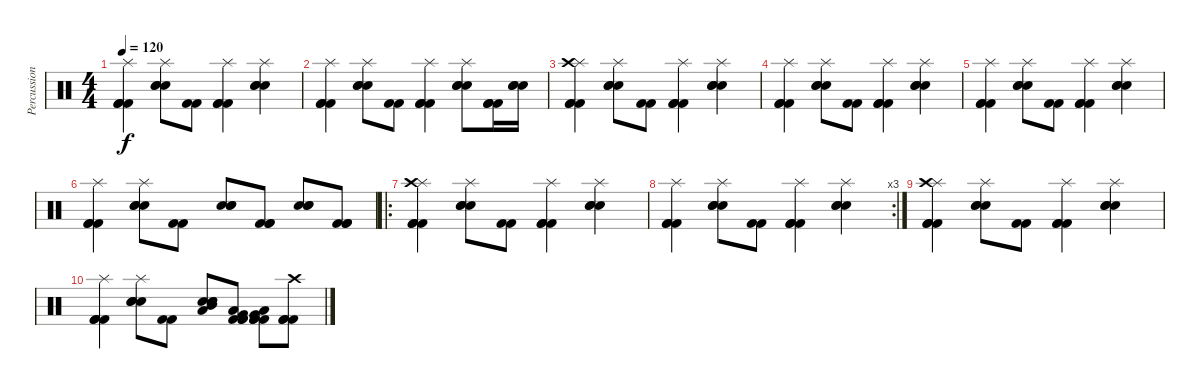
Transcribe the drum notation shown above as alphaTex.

\track ("Percussion" "Percussion") {instrument percussion}
\staff {score}
\articulation defaults
\ts (4 4)
\tempo 120
\clef neutral
\ks c
("Kick (hit) 2" "Kick (hit) 2" "Kick (hit) 2" "Splash (hit)").4{dy f} ("Electric Snare (hit)" "Electric Snare (hit)" "Electric Snare (hit)" "Splash (hit)").8 ("Kick (hit) 2" "Kick (hit) 2").8 ("Kick (hit) 2" "Kick (hit) 2" "Kick (hit) 2" "Splash (hit)").4 ("Electric Snare (hit)" "Electric Snare (hit)" "Electric Snare (hit)" "Splash (hit)").4 |
("Kick (hit) 2" "Kick (hit) 2" "Kick (hit) 2" "Splash (hit)").4 ("Electric Snare (hit)" "Electric Snare (hit)" "Electric Snare (hit)" "Splash (hit)").8 ("Kick (hit) 2" "Kick (hit) 2").8 ("Kick (hit) 2" "Kick (hit) 2" "Kick (hit) 2" "Splash (hit)").4 ("Electric Snare (hit)" "Electric Snare (hit)" "Electric Snare (hit)" "Splash (hit)").8 ("Kick (hit) 2" "Kick (hit) 2" "Kick (hit) 2").16 ("Electric Snare (hit)" "Electric Snare (hit)" "Electric Snare (hit)").16 |
("Kick (hit) 2" "Kick (hit) 2" "Kick (hit) 2" "Splash (hit)" "Crash high (hit)").4 ("Electric Snare (hit)" "Electric Snare (hit)" "Electric Snare (hit)" "Splash (hit)").8 ("Kick (hit) 2" "Kick (hit) 2").8 ("Kick (hit) 2" "Kick (hit) 2" "Kick (hit) 2" "Splash (hit)").4 ("Electric Snare (hit)" "Electric Snare (hit)" "Electric Snare (hit)" "Splash (hit)").4 |
("Kick (hit) 2" "Kick (hit) 2" "Kick (hit) 2" "Splash (hit)").4 ("Electric Snare (hit)" "Electric Snare (hit)" "Electric Snare (hit)" "Splash (hit)").8 ("Kick (hit) 2" "Kick (hit) 2").8 ("Kick (hit) 2" "Kick (hit) 2" "Kick (hit) 2" "Splash (hit)").4 ("Electric Snare (hit)" "Electric Snare (hit)" "Electric Snare (hit)" "Splash (hit)").4 |
("Kick (hit) 2" "Kick (hit) 2" "Kick (hit) 2" "Splash (hit)").4 ("Electric Snare (hit)" "Electric Snare (hit)" "Electric Snare (hit)" "Splash (hit)").8 ("Kick (hit) 2" "Kick (hit) 2").8 ("Kick (hit) 2" "Kick (hit) 2" "Kick (hit) 2" "Splash (hit)").4 ("Electric Snare (hit)" "Electric Snare (hit)" "Electric Snare (hit)" "Splash (hit)").4 |
("Kick (hit) 2" "Kick (hit) 2" "Kick (hit) 2" "Splash (hit)").4 ("Electric Snare (hit)" "Electric Snare (hit)" "Electric Snare (hit)" "Splash (hit)").8 ("Kick (hit) 2" "Kick (hit) 2").8 ("Electric Snare (hit)" "Electric Snare (hit)" "Electric Snare (hit)").8 ("Kick (hit) 2" "Kick (hit) 2" "Kick (hit) 2").8 ("Electric Snare (hit)" "Electric Snare (hit)" "Electric Snare (hit)").8 ("Kick (hit) 2" "Kick (hit) 2" "Kick (hit) 2").8 |
\ro
("Kick (hit) 2" "Kick (hit) 2" "Kick (hit) 2" "Splash (hit)" "Crash high (hit)").4 ("Electric Snare (hit)" "Electric Snare (hit)" "Electric Snare (hit)" "Splash (hit)").8 ("Kick (hit) 2" "Kick (hit) 2").8 ("Kick (hit) 2" "Kick (hit) 2" "Kick (hit) 2" "Splash (hit)").4 ("Electric Snare (hit)" "Electric Snare (hit)" "Electric Snare (hit)" "Splash (hit)").4 |
\rc 3
("Kick (hit) 2" "Kick (hit) 2" "Kick (hit) 2" "Splash (hit)").4 ("Electric Snare (hit)" "Electric Snare (hit)" "Electric Snare (hit)" "Splash (hit)").8 ("Kick (hit) 2" "Kick (hit) 2").8 ("Kick (hit) 2" "Kick (hit) 2" "Kick (hit) 2" "Splash (hit)").4 ("Electric Snare (hit)" "Electric Snare (hit)" "Electric Snare (hit)" "Splash (hit)").4 |
("Kick (hit) 2" "Kick (hit) 2" "Kick (hit) 2" "Splash (hit)" "Crash high (hit)").4 ("Electric Snare (hit)" "Electric Snare (hit)" "Electric Snare (hit)" "Splash (hit)").8 ("Kick (hit) 2" "Kick (hit) 2").8 ("Kick (hit) 2" "Kick (hit) 2" "Kick (hit) 2" "Splash (hit)").4 ("Electric Snare (hit)" "Electric Snare (hit)" "Electric Snare (hit)" "Splash (hit)").4 |
("Kick (hit) 2" "Kick (hit) 2" "Kick (hit) 2" "Splash (hit)").4 ("Electric Snare (hit)" "Electric Snare (hit)" "Electric Snare (hit)" "Splash (hit)").8 ("Kick (hit) 2" "Kick (hit) 2").8 ("Electric Snare (hit)" "Electric Snare (hit)" "Electric Snare (hit)" "Mid Tom (hit)" "Low Tom (hit)").8 ("Kick (hit) 2" "Kick (hit) 2" "Kick (hit) 2" "Low Tom (hit)" "Very Low Tom (hit)").8 ("Kick (hit) 2" "Kick (hit) 2" "Kick (hit) 2" "Very Low Tom (hit)" "Low Floor Tom (hit)").8 ("Kick (hit) 2" "Kick (hit) 2" "Kick (hit) 2" "Crash high (hit)").8
